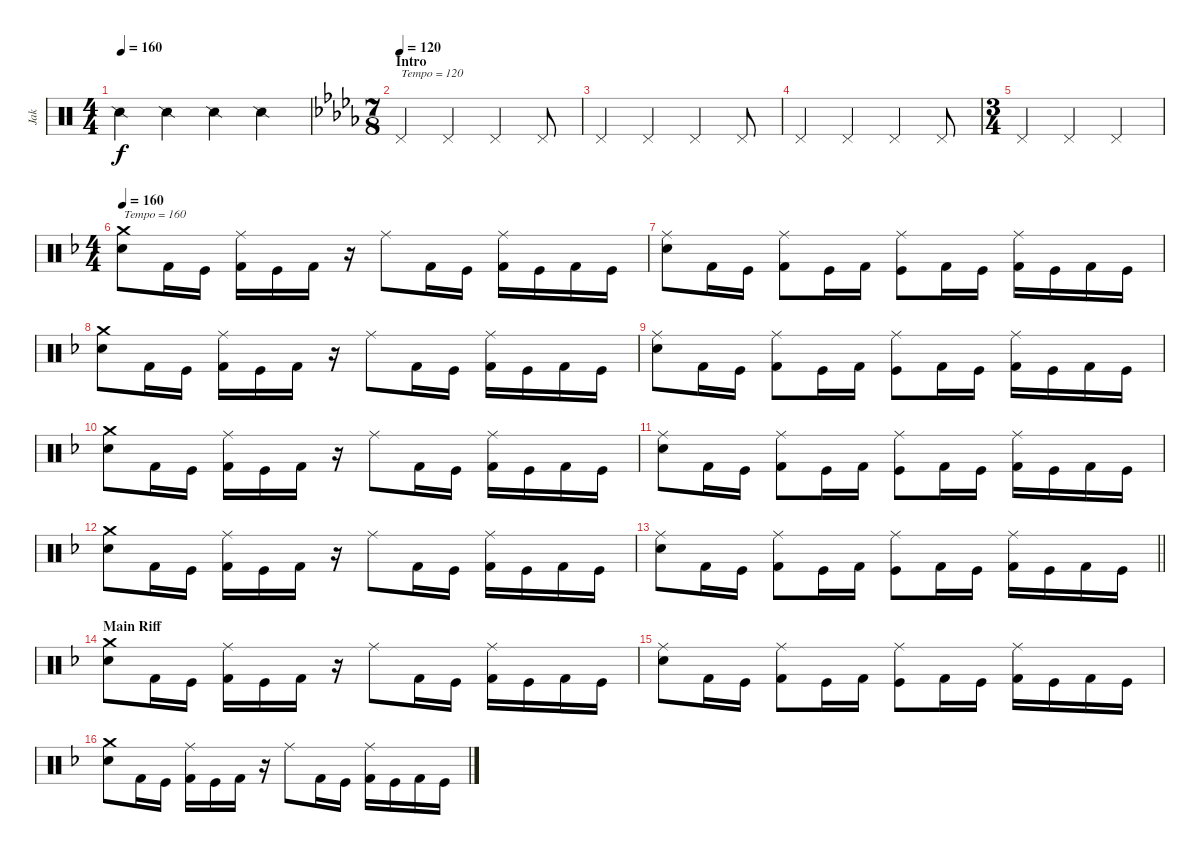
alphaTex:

\track ("Jak" "Jak") {instrument percussion}
\staff {score}
\articulation defaults
\ts (4 4)
\tempo 160
\tempo 120
\tempo 160
\clef neutral
\ks c "Snare (side stick) 2".4{dy f} "Snare (side stick) 2".4 "Snare (side stick) 2".4 "Snare (side stick) 2".4
|
\ts (7 8)
\section ("" "Intro")
\tempo 120
\ks bbminor "Pedal Hi-Hat (hit)".4{txt "Tempo = 120"} "Pedal Hi-Hat (hit)".4 "Pedal Hi-Hat (hit)".4 "Pedal Hi-Hat (hit)".8
|
"Pedal Hi-Hat (hit)".4 "Pedal Hi-Hat (hit)".4 "Pedal Hi-Hat (hit)".4 "Pedal Hi-Hat (hit)".8 |
"Pedal Hi-Hat (hit)".4 "Pedal Hi-Hat (hit)".4 "Pedal Hi-Hat (hit)".4 "Pedal Hi-Hat (hit)".8 |
\ts (3 4)
"Pedal Hi-Hat (hit)".4 "Pedal Hi-Hat (hit)".4 "Pedal Hi-Hat (hit)".4 |
\ts (4 4)
\tempo 160
\ks dminor
("Crash medium (hit)" "Snare (hit) 2").8{txt "Tempo = 160"} "Kick (hit) 2".16 "Kick (hit)".16 ("Ride (middle)" "Kick (hit) 2").16 "Kick (hit)".16 "Kick (hit) 2".16 r.16 "Ride (middle)".8 "Kick (hit) 2".16 "Kick (hit)".16 ("Ride (middle)" "Kick (hit) 2").16 "Kick (hit)".16 "Kick (hit) 2".16 "Kick (hit)".16 |
("Ride (middle)" "Snare (hit) 2").8 "Kick (hit) 2".16 "Kick (hit)".16 ("Ride (middle)" "Kick (hit) 2").8 "Kick (hit)".16 "Kick (hit) 2".16 ("Ride (middle)" "Kick (hit)").8 "Kick (hit) 2".16 "Kick (hit)".16 ("Ride (middle)" "Kick (hit) 2").16 "Kick (hit)".16 "Kick (hit) 2".16 "Kick (hit)".16 |
("Crash medium (hit)" "Snare (hit) 2").8 "Kick (hit) 2".16 "Kick (hit)".16 ("Ride (middle)" "Kick (hit) 2").16 "Kick (hit)".16 "Kick (hit) 2".16 r.16 "Ride (middle)".8 "Kick (hit) 2".16 "Kick (hit)".16 ("Ride (middle)" "Kick (hit) 2").16 "Kick (hit)".16 "Kick (hit) 2".16 "Kick (hit)".16 |
("Ride (middle)" "Snare (hit) 2").8 "Kick (hit) 2".16 "Kick (hit)".16 ("Ride (middle)" "Kick (hit) 2").8 "Kick (hit)".16 "Kick (hit) 2".16 ("Ride (middle)" "Kick (hit)").8 "Kick (hit) 2".16 "Kick (hit)".16 ("Ride (middle)" "Kick (hit) 2").16 "Kick (hit)".16 "Kick (hit) 2".16 "Kick (hit)".16 |
("Crash medium (hit)" "Snare (hit) 2").8 "Kick (hit) 2".16 "Kick (hit)".16 ("Ride (middle)" "Kick (hit) 2").16 "Kick (hit)".16 "Kick (hit) 2".16 r.16 "Ride (middle)".8 "Kick (hit) 2".16 "Kick (hit)".16 ("Ride (middle)" "Kick (hit) 2").16 "Kick (hit)".16 "Kick (hit) 2".16 "Kick (hit)".16 |
("Ride (middle)" "Snare (hit) 2").8 "Kick (hit) 2".16 "Kick (hit)".16 ("Ride (middle)" "Kick (hit) 2").8 "Kick (hit)".16 "Kick (hit) 2".16 ("Ride (middle)" "Kick (hit)").8 "Kick (hit) 2".16 "Kick (hit)".16 ("Ride (middle)" "Kick (hit) 2").16 "Kick (hit)".16 "Kick (hit) 2".16 "Kick (hit)".16 |
("Crash medium (hit)" "Snare (hit) 2").8 "Kick (hit) 2".16 "Kick (hit)".16 ("Ride (middle)" "Kick (hit) 2").16 "Kick (hit)".16 "Kick (hit) 2".16 r.16 "Ride (middle)".8 "Kick (hit) 2".16 "Kick (hit)".16 ("Ride (middle)" "Kick (hit) 2").16 "Kick (hit)".16 "Kick (hit) 2".16 "Kick (hit)".16 |
\barLineRight lightlight
("Ride (middle)" "Snare (hit) 2").8 "Kick (hit) 2".16 "Kick (hit)".16 ("Ride (middle)" "Kick (hit) 2").8 "Kick (hit)".16 "Kick (hit) 2".16 ("Ride (middle)" "Kick (hit)").8 "Kick (hit) 2".16 "Kick (hit)".16 ("Ride (middle)" "Kick (hit) 2").16 "Kick (hit)".16 "Kick (hit) 2".16 "Kick (hit)".16 |
\section ("" "Main Riff")
("Crash medium (hit)" "Snare (hit) 2").8 "Kick (hit) 2".16 "Kick (hit)".16 ("Ride (middle)" "Kick (hit) 2").16 "Kick (hit)".16 "Kick (hit) 2".16 r.16 "Ride (middle)".8 "Kick (hit) 2".16 "Kick (hit)".16 ("Ride (middle)" "Kick (hit) 2").16 "Kick (hit)".16 "Kick (hit) 2".16 "Kick (hit)".16 |
("Ride (middle)" "Snare (hit) 2").8 "Kick (hit) 2".16 "Kick (hit)".16 ("Ride (middle)" "Kick (hit) 2").8 "Kick (hit)".16 "Kick (hit) 2".16 ("Ride (middle)" "Kick (hit)").8 "Kick (hit) 2".16 "Kick (hit)".16 ("Ride (middle)" "Kick (hit) 2").16 "Kick (hit)".16 "Kick (hit) 2".16 "Kick (hit)".16 |
("Crash medium (hit)" "Snare (hit) 2").8 "Kick (hit) 2".16 "Kick (hit)".16 ("Ride (middle)" "Kick (hit) 2").16 "Kick (hit)".16 "Kick (hit) 2".16 r.16 "Ride (middle)".8 "Kick (hit) 2".16 "Kick (hit)".16 ("Ride (middle)" "Kick (hit) 2").16 "Kick (hit)".16 "Kick (hit) 2".16 "Kick (hit)".16
